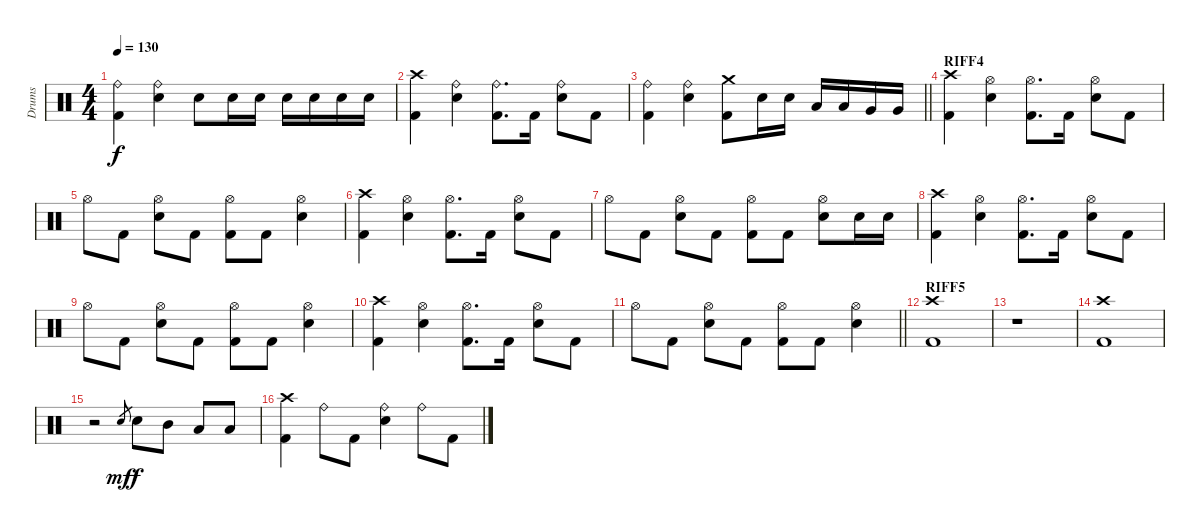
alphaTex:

\track ("Drums" "Drums") {instrument percussion}
\staff {score}
\articulation defaults
\ts (4 4)
\tempo 130
\clef neutral
\ks c
("Ride (bell)" "Kick (hit) 2").4{dy f} ("Ride (bell)" "Electric Snare (hit)").4 "Electric Snare (hit)".8 "Electric Snare (hit)".16 "Electric Snare (hit)".16 "Electric Snare (hit)".16 "Electric Snare (hit)".16 "Electric Snare (hit)".16 "Electric Snare (hit)".16 |
("Crash high (hit)" "Kick (hit) 2").4 ("Ride (bell)" "Electric Snare (hit)").4 ("Ride (bell)" "Kick (hit) 2").8{d} "Kick (hit) 2".16 ("Ride (bell)" "Electric Snare (hit)").8 "Kick (hit) 2".8 |
\barLineRight lightlight
("Ride (bell)" "Kick (hit) 2").4 ("Ride (bell)" "Electric Snare (hit)").4 ("Crash medium (hit)" "Kick (hit) 2").8 "Electric Snare (hit)".16 "Electric Snare (hit)".16 "Low Tom (hit)".16 "Low Tom (hit)".16 "Very Low Tom (hit)".16 "Very Low Tom (hit)".16 |
\section ("" "RIFF4")
("Crash high (hit)" "Kick (hit) 2").4 ("Hi-Hat (open)" "Electric Snare (hit)").4 ("Hi-Hat (open)" "Kick (hit) 2").8{d} "Kick (hit) 2".16 ("Hi-Hat (open)" "Electric Snare (hit)").8 "Kick (hit) 2".8 |
"Hi-Hat (open)".8 "Kick (hit) 2".8 ("Hi-Hat (open)" "Electric Snare (hit)").8 "Kick (hit) 2".8 ("Hi-Hat (open)" "Kick (hit) 2").8 "Kick (hit) 2".8 ("Hi-Hat (open)" "Electric Snare (hit)").4 |
("Crash high (hit)" "Kick (hit) 2").4 ("Hi-Hat (open)" "Electric Snare (hit)").4 ("Hi-Hat (open)" "Kick (hit) 2").8{d} "Kick (hit) 2".16 ("Hi-Hat (open)" "Electric Snare (hit)").8 "Kick (hit) 2".8 |
"Hi-Hat (open)".8 "Kick (hit) 2".8 ("Hi-Hat (open)" "Electric Snare (hit)").8 "Kick (hit) 2".8 ("Hi-Hat (open)" "Kick (hit) 2").8 "Kick (hit) 2".8 ("Hi-Hat (open)" "Electric Snare (hit)").8 "Electric Snare (hit)".16 "Electric Snare (hit)".16 |
("Crash high (hit)" "Kick (hit) 2").4 ("Hi-Hat (open)" "Electric Snare (hit)").4 ("Hi-Hat (open)" "Kick (hit) 2").8{d} "Kick (hit) 2".16 ("Hi-Hat (open)" "Electric Snare (hit)").8 "Kick (hit) 2".8 |
"Hi-Hat (open)".8 "Kick (hit) 2".8 ("Hi-Hat (open)" "Electric Snare (hit)").8 "Kick (hit) 2".8 ("Hi-Hat (open)" "Kick (hit) 2").8 "Kick (hit) 2".8 ("Hi-Hat (open)" "Electric Snare (hit)").4 |
("Crash high (hit)" "Kick (hit) 2").4 ("Hi-Hat (open)" "Electric Snare (hit)").4 ("Hi-Hat (open)" "Kick (hit) 2").8{d} "Kick (hit) 2".16 ("Hi-Hat (open)" "Electric Snare (hit)").8 "Kick (hit) 2".8 |
\barLineRight lightlight "Hi-Hat (open)".8 "Kick (hit) 2".8
("Hi-Hat (open)" "Electric Snare (hit)").8 "Kick (hit) 2".8 ("Hi-Hat (open)" "Kick (hit) 2").8 "Kick (hit) 2".8 ("Hi-Hat (open)" "Electric Snare (hit)").4 |
\section ("" "RIFF5")
("Crash high (hit)" "Kick (hit) 2").1 |
r.1 |
("Crash high (hit)" "Kick (hit) 2").1 |
r.2 "Electric Snare (hit)".8{gr dy mf} "Electric Snare (hit)".8{dy f} "Mid Tom (hit)".8 "Low Tom (hit)".8 "Low Tom (hit)".8 |
("Crash high (hit)" "Kick (hit) 2").4 "Ride (bell)".8 "Kick (hit) 2".8 ("Ride (bell)" "Electric Snare (hit)").4 "Ride (bell)".8 "Kick (hit) 2".8
